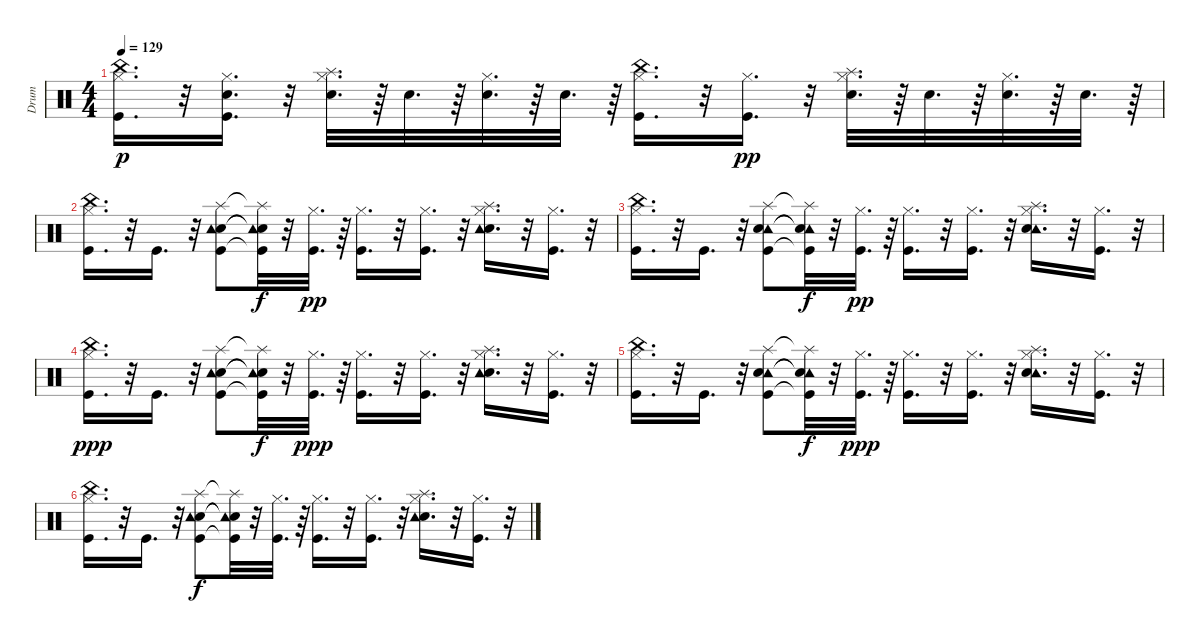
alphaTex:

\track ("Drum" "Drum") {instrument percussion}
\staff {score}
\articulation defaults
\ts (4 4)
\tempo 129
\clef neutral
\ks c
("China (hit)" "Hi-Hat (closed)" "Kick (hit)").16{d dy p} r.32 ("Snare (hit) 2" "Kick (hit)" "Hi-Hat (closed)").16{d} r.32 ("Splash (hit)" "Hi-Hat (closed)" "Snare (hit) 2").32{d} r.64 "Snare (hit) 2".32{d} r.64 ("Hi-Hat (closed)" "Snare (hit) 2").32{d} r.64 "Snare (hit) 2".32{d} r.64 ("China (hit)" "Kick (hit)" "Hi-Hat (closed)").16{d} r.32 ("Kick (hit)" "Hi-Hat (closed)").16{d dy pp} r.32 ("Splash (hit)" "Hi-Hat (closed)" "Snare (hit) 2").32{d} r.64 "Snare (hit) 2".32{d} r.64 ("Hi-Hat (closed)" "Snare (hit) 2").32{d} r.64 "Snare (hit) 2".32{d} r.64 |
("Kick (hit)" "Hi-Hat (closed)" "China (hit)").16{d} r.32 "Kick (hit)".16{d} r.32 ("Snare (hit) 2" "Kick (hit)" "Tambourine (hit)" "Splash (hit)").8 ("Snare (hit) 2"{t} "Kick (hit)"{t} "Tambourine (hit)"{t} "Splash (hit)"{t}).32{dy f} r.32 ("Hi-Hat (closed)" "Kick (hit)").32{d dy pp} r.64 ("Hi-Hat (closed)" "Kick (hit)").16{d} r.32 ("Hi-Hat (closed)" "Kick (hit)").16{d} r.32 ("Hi-Hat (closed)" "Snare (hit) 2" "Tambourine (hit)" "Splash (hit)").16{d} r.32 ("Hi-Hat (closed)" "Kick (hit)").16{d} r.32 |
("Hi-Hat (closed)" "Kick (hit)" "China (hit)").16{d} r.32 "Kick (hit)".16{d} r.32 ("Tambourine (hit)" "Kick (hit)" "Snare (hit) 2" "Splash (hit)").8 ("Tambourine (hit)"{t} "Kick (hit)"{t} "Snare (hit) 2"{t} "Splash (hit)"{t}).32{dy f} r.32 ("Kick (hit)" "Hi-Hat (closed)").32{d dy pp} r.64 ("Kick (hit)" "Hi-Hat (closed)").16{d} r.32 ("Kick (hit)" "Hi-Hat (closed)").16{d} r.32 ("Tambourine (hit)" "Snare (hit) 2" "Hi-Hat (closed)" "Splash (hit)").16{d} r.32 ("Kick (hit)" "Hi-Hat (closed)").16{d} r.32 |
("Kick (hit)" "Hi-Hat (closed)" "China (hit)").16{d dy ppp} r.32 "Kick (hit)".16{d} r.32 ("Snare (hit) 2" "Kick (hit)" "Tambourine (hit)" "Splash (hit)").8 ("Snare (hit) 2"{t} "Kick (hit)"{t} "Tambourine (hit)"{t} "Splash (hit)"{t}).32{dy f} r.32 ("Hi-Hat (closed)" "Kick (hit)").32{d dy ppp} r.64 ("Hi-Hat (closed)" "Kick (hit)").16{d} r.32 ("Hi-Hat (closed)" "Kick (hit)").16{d} r.32 ("Hi-Hat (closed)" "Snare (hit) 2" "Tambourine (hit)" "Splash (hit)").16{d} r.32 ("Hi-Hat (closed)" "Kick (hit)").16{d} r.32 |
("Hi-Hat (closed)" "Kick (hit)" "China (hit)").16{d} r.32 "Kick (hit)".16{d} r.32 ("Tambourine (hit)" "Kick (hit)" "Snare (hit) 2" "Splash (hit)").8 ("Tambourine (hit)"{t} "Kick (hit)"{t} "Snare (hit) 2"{t} "Splash (hit)"{t}).32{dy f} r.32 ("Kick (hit)" "Hi-Hat (closed)").32{d dy ppp} r.64 ("Kick (hit)" "Hi-Hat (closed)").16{d} r.32 ("Kick (hit)" "Hi-Hat (closed)").16{d} r.32 ("Tambourine (hit)" "Snare (hit) 2" "Hi-Hat (closed)" "Splash (hit)").16{d} r.32 ("Kick (hit)" "Hi-Hat (closed)").16{d} r.32 |
("Kick (hit)" "Hi-Hat (closed)" "China (hit)").16{d} r.32 "Kick (hit)".16{d} r.32 ("Snare (hit) 2" "Kick (hit)" "Tambourine (hit)" "Splash (hit)").8{dy f} ("Snare (hit) 2"{t} "Kick (hit)"{t} "Tambourine (hit)"{t} "Splash (hit)"{t}).32 r.32 ("Hi-Hat (closed)" "Kick (hit)").32{d} r.64 ("Hi-Hat (closed)" "Kick (hit)").16{d} r.32 ("Hi-Hat (closed)" "Kick (hit)").16{d} r.32 ("Hi-Hat (closed)" "Snare (hit) 2" "Tambourine (hit)" "Splash (hit)").16{d} r.32 ("Hi-Hat (closed)" "Kick (hit)").16{d} r.32
